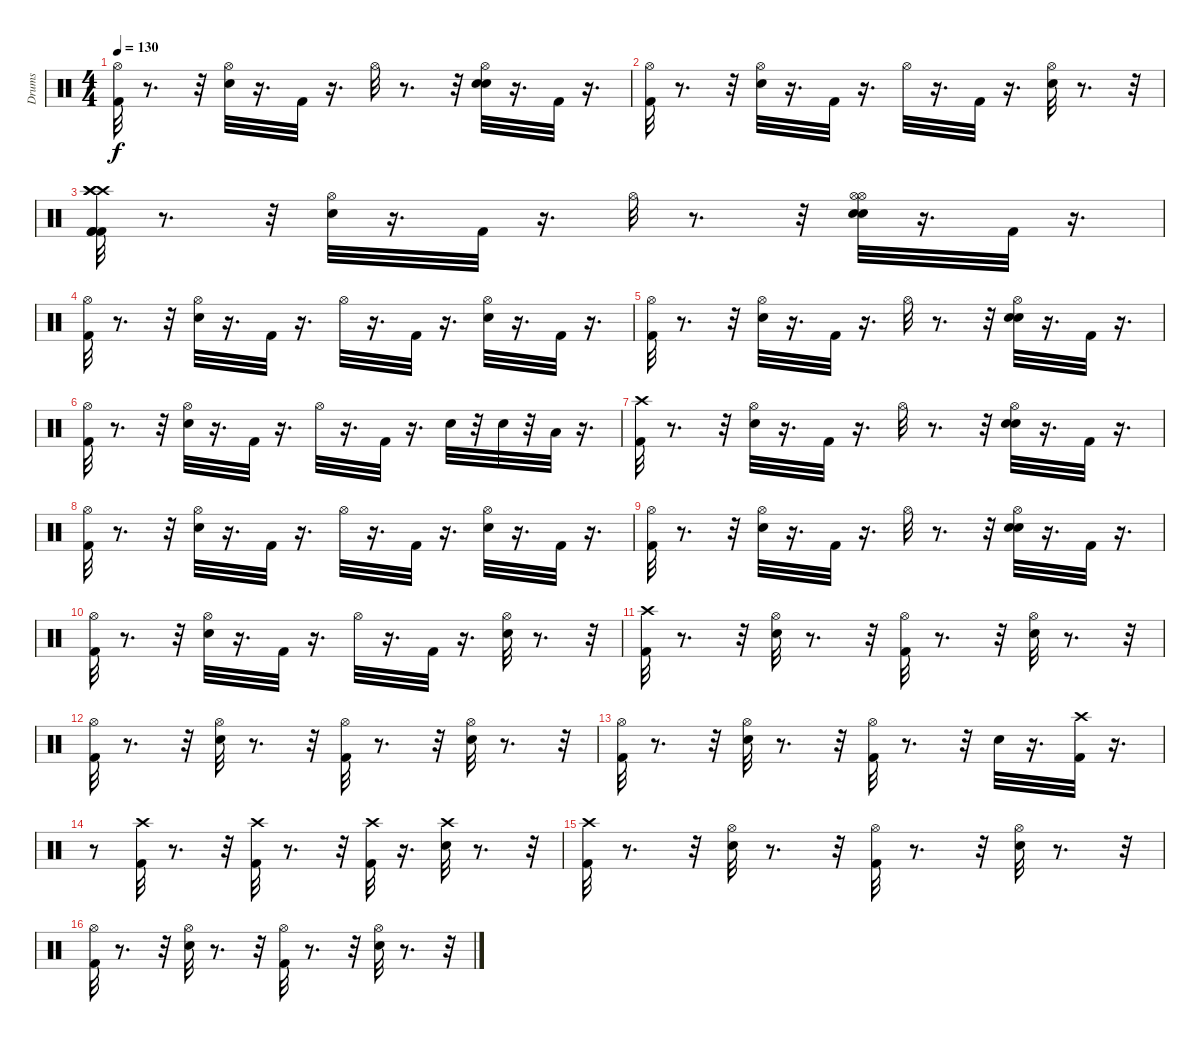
\track ("Drums" "Drums") {instrument percussion}
\staff {score}
\articulation defaults
\ts (4 4)
\tempo 130
\clef neutral
\ks c
("Hi-Hat (open)" "Kick (hit) 2").32{dy f} r.8{d} r.32 ("Snare (hit) 2" "Hi-Hat (open)").32 r.16{d} "Kick (hit) 2".32 r.16{d} "Hi-Hat (open)".32 r.8{d} r.32 ("Snare (hit) 2" "Snare (hit) 2" "Hi-Hat (open)").32 r.16{d} "Kick (hit) 2".32 r.16{d} |
("Hi-Hat (open)" "Kick (hit) 2").32 r.8{d} r.32 ("Snare (hit) 2" "Hi-Hat (open)").32 r.16{d} "Kick (hit) 2".32 r.16{d} "Hi-Hat (open)".32 r.16{d} "Kick (hit) 2".32 r.16{d} ("Snare (hit) 2" "Hi-Hat (open)").32 r.8{d} r.32 |
("Kick (hit) 2" "Crash high (hit)" "Kick (hit) 2" "Crash high (hit)" "Kick (hit) 2" "Crash high (hit)").32 r.8{d} r.32 ("Snare (hit) 2" "Hi-Hat (open)").32 r.16{d} "Kick (hit) 2".32 r.16{d} "Hi-Hat (open)".32 r.8{d} r.32 ("Snare (hit) 2" "Hi-Hat (open)" "Snare (hit) 2" "Hi-Hat (open)").32 r.16{d} "Kick (hit) 2".32 r.16{d} |
("Kick (hit) 2" "Hi-Hat (open)").32 r.8{d} r.32 ("Snare (hit) 2" "Hi-Hat (open)").32 r.16{d} "Kick (hit) 2".32 r.16{d} "Hi-Hat (open)".32 r.16{d} "Kick (hit) 2".32 r.16{d} ("Snare (hit) 2" "Hi-Hat (open)").32 r.16{d} "Kick (hit) 2".32 r.16{d} |
("Hi-Hat (open)" "Kick (hit) 2").32 r.8{d} r.32 ("Snare (hit) 2" "Hi-Hat (open)").32 r.16{d} "Kick (hit) 2".32 r.16{d} "Hi-Hat (open)".32 r.8{d} r.32 ("Snare (hit) 2" "Hi-Hat (open)" "Snare (hit) 2").32 r.16{d} "Kick (hit) 2".32 r.16{d} |
("Kick (hit) 2" "Hi-Hat (open)").32 r.8{d} r.32 ("Snare (hit) 2" "Hi-Hat (open)").32 r.16{d} "Kick (hit) 2".32 r.16{d} "Hi-Hat (open)".32 r.16{d} "Kick (hit) 2".32 r.16{d} "Snare (hit) 2".32 r.32 "Snare (hit) 2".32 r.32 "Low Floor Tom (hit)".32 r.16{d} |
("Kick (hit) 2" "Crash high (hit)").32 r.8{d} r.32 ("Snare (hit) 2" "Hi-Hat (open)").32 r.16{d} "Kick (hit) 2".32 r.16{d} "Hi-Hat (open)".32 r.8{d} r.32 ("Snare (hit) 2" "Snare (hit) 2" "Hi-Hat (open)").32 r.16{d} "Kick (hit) 2".32 r.16{d} |
("Kick (hit) 2" "Hi-Hat (open)").32 r.8{d} r.32 ("Snare (hit) 2" "Hi-Hat (open)").32 r.16{d} "Kick (hit) 2".32 r.16{d} "Hi-Hat (open)".32 r.16{d} "Kick (hit) 2".32 r.16{d} ("Hi-Hat (open)" "Snare (hit) 2").32 r.16{d} "Kick (hit) 2".32 r.16{d} |
("Hi-Hat (open)" "Kick (hit) 2").32 r.8{d} r.32 ("Snare (hit) 2" "Hi-Hat (open)").32 r.16{d} "Kick (hit) 2".32 r.16{d} "Hi-Hat (open)".32 r.8{d} r.32 ("Snare (hit) 2" "Snare (hit) 2" "Hi-Hat (open)").32 r.16{d} "Kick (hit) 2".32 r.16{d} |
("Hi-Hat (open)" "Kick (hit) 2").32 r.8{d} r.32 ("Snare (hit) 2" "Hi-Hat (open)").32 r.16{d} "Kick (hit) 2".32 r.16{d} "Hi-Hat (open)".32 r.16{d} "Kick (hit) 2".32 r.16{d} ("Snare (hit) 2" "Hi-Hat (open)").32 r.8{d} r.32 |
("Kick (hit) 2" "Crash high (hit)").32 r.8{d} r.32 ("Snare (hit) 2" "Hi-Hat (open)").32 r.8{d} r.32 ("Kick (hit) 2" "Hi-Hat (open)").32 r.8{d} r.32 ("Hi-Hat (open)" "Snare (hit) 2").32 r.8{d} r.32 |
("Kick (hit) 2" "Hi-Hat (open)").32 r.8{d} r.32 ("Snare (hit) 2" "Hi-Hat (open)").32 r.8{d} r.32 ("Kick (hit) 2" "Hi-Hat (open)").32 r.8{d} r.32 ("Hi-Hat (open)" "Snare (hit) 2").32 r.8{d} r.32 |
("Kick (hit) 2" "Hi-Hat (open)").32 r.8{d} r.32 ("Hi-Hat (open)" "Snare (hit) 2").32 r.8{d} r.32 ("Kick (hit) 2" "Hi-Hat (open)").32 r.8{d} r.32 "Snare (hit) 2".32 r.16{d} ("Kick (hit) 2" "Crash high (hit)").32 r.16{d} |
r.8 ("Kick (hit) 2" "Crash high (hit)").32 r.8{d} r.32 ("Kick (hit) 2" "Crash high (hit)").32 r.8{d} r.32 ("Kick (hit) 2" "Crash high (hit)").32 r.16{d} ("Snare (hit) 2" "Crash high (hit)").32 r.8{d} r.32 |
("Crash high (hit)" "Kick (hit) 2").32 r.8{d} r.32 ("Hi-Hat (open)" "Snare (hit) 2").32 r.8{d} r.32 ("Hi-Hat (open)" "Kick (hit) 2").32 r.8{d} r.32 ("Hi-Hat (open)" "Snare (hit) 2").32 r.8{d} r.32 |
("Kick (hit) 2" "Hi-Hat (open)").32 r.8{d} r.32 ("Snare (hit) 2" "Hi-Hat (open)").32 r.8{d} r.32 ("Kick (hit) 2" "Hi-Hat (open)").32 r.8{d} r.32 ("Hi-Hat (open)" "Snare (hit) 2").32 r.8{d} r.32
